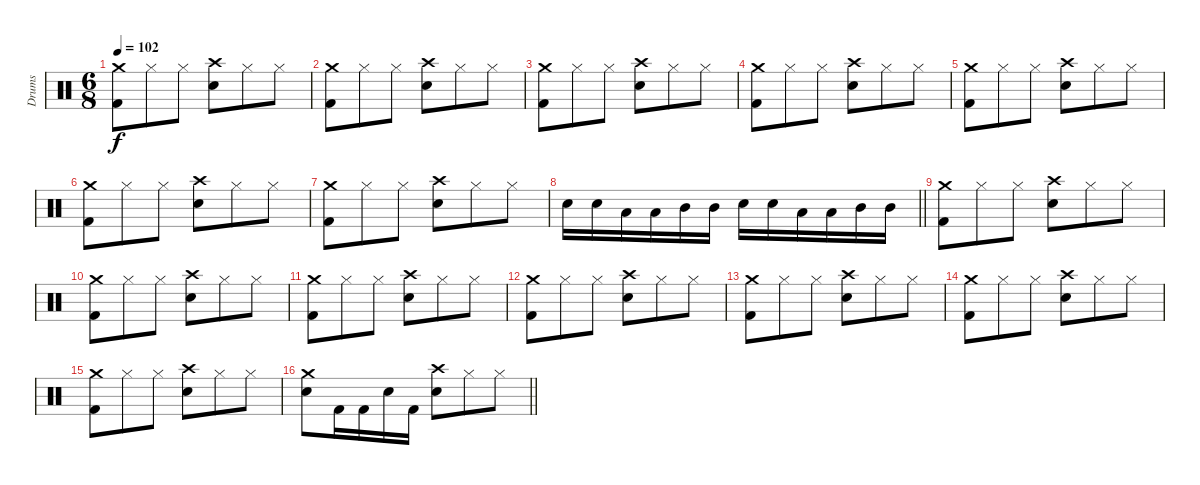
\track ("Drums" "Drums") {instrument percussion}
\staff {score}
\articulation defaults
\ts (6 8)
\tempo 102
\clef neutral
\ks aminor
("Crash medium (hit)" "Kick (hit) 2").8{dy f} "Hi-Hat (closed)".8 "Hi-Hat (closed)".8 ("Crash high (hit)" "Snare (hit) 2").8 "Hi-Hat (closed)".8 "Hi-Hat (closed)".8 |
("Crash medium (hit)" "Kick (hit) 2").8 "Hi-Hat (closed)".8 "Hi-Hat (closed)".8 ("Crash high (hit)" "Snare (hit) 2").8 "Hi-Hat (closed)".8 "Hi-Hat (closed)".8 |
("Crash medium (hit)" "Kick (hit) 2").8 "Hi-Hat (closed)".8 "Hi-Hat (closed)".8 ("Crash high (hit)" "Snare (hit) 2").8 "Hi-Hat (closed)".8 "Hi-Hat (closed)".8 |
("Crash medium (hit)" "Kick (hit) 2").8 "Hi-Hat (closed)".8 "Hi-Hat (closed)".8 ("Crash high (hit)" "Snare (hit) 2").8 "Hi-Hat (closed)".8 "Hi-Hat (closed)".8 |
("Crash medium (hit)" "Kick (hit) 2").8 "Hi-Hat (closed)".8 "Hi-Hat (closed)".8 ("Crash high (hit)" "Snare (hit) 2").8 "Hi-Hat (closed)".8 "Hi-Hat (closed)".8 |
("Crash medium (hit)" "Kick (hit) 2").8 "Hi-Hat (closed)".8 "Hi-Hat (closed)".8 ("Crash high (hit)" "Snare (hit) 2").8 "Hi-Hat (closed)".8 "Hi-Hat (closed)".8 |
("Crash medium (hit)" "Kick (hit) 2").8 "Hi-Hat (closed)".8 "Hi-Hat (closed)".8 ("Crash high (hit)" "Snare (hit) 2").8 "Hi-Hat (closed)".8 "Hi-Hat (closed)".8 |
\barLineRight lightlight "Snare (hit) 2".16 "Snare (hit) 2".16 "Low Tom (hit)".16 "Low Tom (hit)".16 "Mid Tom (hit)".16 "Mid Tom (hit)".16 "Snare (hit) 2".16 "Snare (hit) 2".16 "Low Tom (hit)".16 "Low Tom (hit)".16 "Mid Tom (hit)".16 "Mid Tom (hit)".16
|
("Crash medium (hit)" "Kick (hit) 2").8 "Hi-Hat (closed)".8 "Hi-Hat (closed)".8 ("Crash high (hit)" "Snare (hit) 2").8 "Hi-Hat (closed)".8 "Hi-Hat (closed)".8 |
("Crash medium (hit)" "Kick (hit) 2").8 "Hi-Hat (closed)".8 "Hi-Hat (closed)".8 ("Crash high (hit)" "Snare (hit) 2").8 "Hi-Hat (closed)".8 "Hi-Hat (closed)".8 |
("Crash medium (hit)" "Kick (hit) 2").8 "Hi-Hat (closed)".8 "Hi-Hat (closed)".8 ("Crash high (hit)" "Snare (hit) 2").8 "Hi-Hat (closed)".8 "Hi-Hat (closed)".8 |
("Crash medium (hit)" "Kick (hit) 2").8 "Hi-Hat (closed)".8 "Hi-Hat (closed)".8 ("Crash high (hit)" "Snare (hit) 2").8 "Hi-Hat (closed)".8 "Hi-Hat (closed)".8 |
("Crash medium (hit)" "Kick (hit) 2").8 "Hi-Hat (closed)".8 "Hi-Hat (closed)".8 ("Crash high (hit)" "Snare (hit) 2").8 "Hi-Hat (closed)".8 "Hi-Hat (closed)".8 |
("Crash medium (hit)" "Kick (hit) 2").8 "Hi-Hat (closed)".8 "Hi-Hat (closed)".8 ("Crash high (hit)" "Snare (hit) 2").8 "Hi-Hat (closed)".8 "Hi-Hat (closed)".8 |
("Crash medium (hit)" "Kick (hit) 2").8 "Hi-Hat (closed)".8 "Hi-Hat (closed)".8 ("Crash high (hit)" "Snare (hit) 2").8 "Hi-Hat (closed)".8 "Hi-Hat (closed)".8 |
\barLineRight lightlight
("Crash medium (hit)" "Snare (hit) 2").8 "Kick (hit) 2".16 "Kick (hit) 2".16 "Snare (hit) 2".16 "Kick (hit) 2".16 ("Crash high (hit)" "Snare (hit) 2").8 "Hi-Hat (closed)".8 "Hi-Hat (closed)".8
